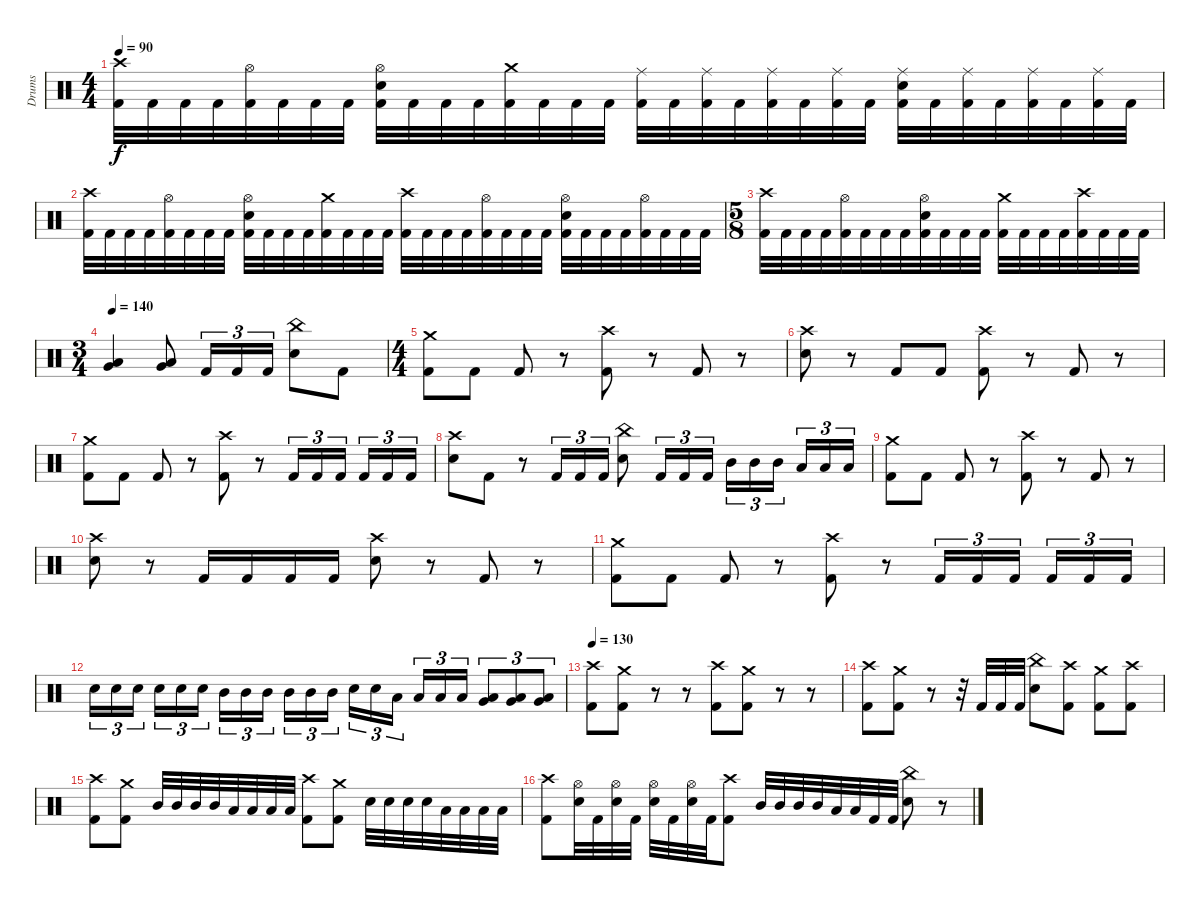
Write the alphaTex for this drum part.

\track ("Drums" "Drums") {instrument percussion}
\staff {score}
\articulation defaults
\ts (4 4)
\tempo 90
\clef neutral
\ks c
("Crash high (hit)" "Kick (hit) 2").32{dy f} "Kick (hit) 2".32 "Kick (hit) 2".32 "Kick (hit) 2".32 ("Hi-Hat (open)" "Kick (hit) 2").32 "Kick (hit) 2".32 "Kick (hit) 2".32 "Kick (hit) 2".32 ("Hi-Hat (open)" "Electric Snare (hit)" "Kick (hit) 2").32 "Kick (hit) 2".32 "Kick (hit) 2".32 "Kick (hit) 2".32 ("Crash medium (hit)" "Kick (hit) 2").32 "Kick (hit) 2".32 "Kick (hit) 2".32 "Kick (hit) 2".32 ("Ride (middle)" "Kick (hit) 2").32 "Kick (hit) 2".32 ("Ride (middle)" "Kick (hit) 2").32 "Kick (hit) 2".32 ("Ride (middle)" "Kick (hit) 2").32 "Kick (hit) 2".32 ("Ride (middle)" "Kick (hit) 2").32 "Kick (hit) 2".32 ("Ride (middle)" "Electric Snare (hit)" "Kick (hit) 2").32 "Kick (hit) 2".32 ("Ride (middle)" "Kick (hit) 2").32 "Kick (hit) 2".32 ("Ride (middle)" "Kick (hit) 2").32 "Kick (hit) 2".32 ("Ride (middle)" "Kick (hit) 2").32 "Kick (hit) 2".32 |
("Crash high (hit)" "Kick (hit) 2").32 "Kick (hit) 2".32 "Kick (hit) 2".32 "Kick (hit) 2".32 ("Hi-Hat (open)" "Kick (hit) 2").32 "Kick (hit) 2".32 "Kick (hit) 2".32 "Kick (hit) 2".32 ("Hi-Hat (open)" "Electric Snare (hit)" "Kick (hit) 2").32 "Kick (hit) 2".32 "Kick (hit) 2".32 "Kick (hit) 2".32 ("Crash medium (hit)" "Kick (hit) 2").32 "Kick (hit) 2".32 "Kick (hit) 2".32 "Kick (hit) 2".32 ("Crash high (hit)" "Kick (hit) 2").32 "Kick (hit) 2".32 "Kick (hit) 2".32 "Kick (hit) 2".32 ("Hi-Hat (open)" "Kick (hit) 2").32 "Kick (hit) 2".32 "Kick (hit) 2".32 "Kick (hit) 2".32 ("Hi-Hat (open)" "Electric Snare (hit)" "Kick (hit) 2").32 "Kick (hit) 2".32 "Kick (hit) 2".32 "Kick (hit) 2".32 ("Hi-Hat (open)" "Kick (hit) 2").32 "Kick (hit) 2".32 "Kick (hit) 2".32 "Kick (hit) 2".32 |
\ts (5 8)
("Crash high (hit)" "Kick (hit) 2").32 "Kick (hit) 2".32 "Kick (hit) 2".32 "Kick (hit) 2".32 ("Hi-Hat (open)" "Kick (hit) 2").32 "Kick (hit) 2".32 "Kick (hit) 2".32 "Kick (hit) 2".32 ("Hi-Hat (open)" "Electric Snare (hit)" "Kick (hit) 2").32 "Kick (hit) 2".32 "Kick (hit) 2".32 "Kick (hit) 2".32 ("Crash medium (hit)" "Kick (hit) 2").32 "Kick (hit) 2".32 "Kick (hit) 2".32 "Kick (hit) 2".32 ("Crash high (hit)" "Kick (hit) 2").32 "Kick (hit) 2".32 "Kick (hit) 2".32 "Kick (hit) 2".32 |
\ts (3 4)
\tempo 140
("Low Tom (hit)" "Very Low Tom (hit)").4 ("Low Tom (hit)" "Very Low Tom (hit)").8 "Kick (hit) 2".16{tu (3 2)} "Kick (hit) 2".16{tu (3 2)} "Kick (hit) 2".16{tu (3 2)} ("China (hit)" "Electric Snare (hit)").8 "Kick (hit) 2".8 |
\ts (4 4)
("Crash medium (hit)" "Kick (hit) 2").8 "Kick (hit) 2".8 "Kick (hit) 2".8 r.8 ("Crash high (hit)" "Kick (hit) 2").8 r.8 "Kick (hit) 2".8 r.8 |
("Crash high (hit)" "Electric Snare (hit)").8 r.8 "Kick (hit) 2".8 "Kick (hit) 2".8 ("Crash high (hit)" "Kick (hit) 2").8 r.8 "Kick (hit) 2".8 r.8 |
("Crash medium (hit)" "Kick (hit) 2").8 "Kick (hit) 2".8 "Kick (hit) 2".8 r.8 ("Crash high (hit)" "Kick (hit) 2").8 r.8 "Kick (hit) 2".16{tu (3 2)} "Kick (hit) 2".16{tu (3 2)} "Kick (hit) 2".16{tu (3 2) beam splitsecondary} "Kick (hit) 2".16{tu (3 2)} "Kick (hit) 2".16{tu (3 2)} "Kick (hit) 2".16{tu (3 2)} |
("Crash high (hit)" "Electric Snare (hit)").8 "Kick (hit) 2".8 r.8 "Kick (hit) 2".16{tu (3 2)} "Kick (hit) 2".16{tu (3 2)} "Kick (hit) 2".16{tu (3 2)} ("China (hit)" "Electric Snare (hit)").8 "Kick (hit) 2".16{tu (3 2)} "Kick (hit) 2".16{tu (3 2)} "Kick (hit) 2".16{tu (3 2)} "Mid Tom (hit)".16{tu (3 2)} "Mid Tom (hit)".16{tu (3 2)} "Mid Tom (hit)".16{tu (3 2) beam splitsecondary} "Low Tom (hit)".16{tu (3 2)} "Low Tom (hit)".16{tu (3 2)} "Low Tom (hit)".16{tu (3 2)} |
("Crash medium (hit)" "Kick (hit) 2").8 "Kick (hit) 2".8 "Kick (hit) 2".8 r.8 ("Crash high (hit)" "Kick (hit) 2").8 r.8 "Kick (hit) 2".8 r.8 |
("Crash high (hit)" "Electric Snare (hit)").8 r.8 "Kick (hit) 2".16 "Kick (hit) 2".16 "Kick (hit) 2".16 "Kick (hit) 2".16 ("Crash high (hit)" "Electric Snare (hit)").8 r.8 "Kick (hit) 2".8 r.8 |
("Crash medium (hit)" "Kick (hit) 2").8 "Kick (hit) 2".8 "Kick (hit) 2".8 r.8 ("Crash high (hit)" "Kick (hit) 2").8 r.8 "Kick (hit) 2".16{tu (3 2)} "Kick (hit) 2".16{tu (3 2)} "Kick (hit) 2".16{tu (3 2) beam splitsecondary} "Kick (hit) 2".16{tu (3 2)} "Kick (hit) 2".16{tu (3 2)} "Kick (hit) 2".16{tu (3 2)} |
"Electric Snare (hit)".16{tu (3 2)} "Electric Snare (hit)".16{tu (3 2)} "Electric Snare (hit)".16{tu (3 2) beam splitsecondary} "Electric Snare (hit)".16{tu (3 2)} "Electric Snare (hit)".16{tu (3 2)} "Electric Snare (hit)".16{tu (3 2)} "Mid Tom (hit)".16{tu (3 2)} "Mid Tom (hit)".16{tu (3 2)} "Mid Tom (hit)".16{tu (3 2) beam splitsecondary} "Mid Tom (hit)".16{tu (3 2)} "Mid Tom (hit)".16{tu (3 2)} "Mid Tom (hit)".16{tu (3 2)} "Electric Snare (hit)".16{tu (3 2)} "Electric Snare (hit)".16{tu (3 2)} "Low Tom (hit)".16{tu (3 2) beam splitsecondary} "Low Tom (hit)".16{tu (3 2)} "Low Tom (hit)".16{tu (3 2)} "Low Tom (hit)".16{tu (3 2)} ("Low Tom (hit)" "Very Low Tom (hit)").8{tu (3 2)} ("Low Tom (hit)" "Very Low Tom (hit)").8{tu (3 2)} ("Low Tom (hit)" "Very Low Tom (hit)").8{tu (3 2)} |
\tempo 130
("Crash high (hit)" "Kick (hit) 2").8 ("Crash medium (hit)" "Kick (hit) 2").8 r.8 r.8 ("Crash high (hit)" "Kick (hit) 2").8 ("Crash medium (hit)" "Kick (hit) 2").8 r.8 r.8 |
("Crash high (hit)" "Kick (hit) 2").8 ("Crash medium (hit)" "Kick (hit) 2").8 r.8 r.32 "Kick (hit) 2".32 "Kick (hit) 2".32 "Kick (hit) 2".32 ("China (hit)" "Electric Snare (hit)").8 ("Crash high (hit)" "Kick (hit) 2").8 ("Crash medium (hit)" "Kick (hit) 2").8 ("Crash high (hit)" "Kick (hit) 2").8 |
("Crash high (hit)" "Kick (hit) 2").8 ("Crash medium (hit)" "Kick (hit) 2").8 "Mid Tom (hit)".32 "Mid Tom (hit)".32 "Mid Tom (hit)".32 "Mid Tom (hit)".32 "Low Tom (hit)".32 "Low Tom (hit)".32 "Low Tom (hit)".32 "Low Tom (hit)".32 ("Crash high (hit)" "Kick (hit) 2").8 ("Crash medium (hit)" "Kick (hit) 2").8 "Electric Snare (hit)".32 "Electric Snare (hit)".32 "Electric Snare (hit)".32 "Electric Snare (hit)".32 "Low Tom (hit)".32 "Low Tom (hit)".32 "Low Tom (hit)".32 "Low Tom (hit)".32 |
("Crash high (hit)" "Kick (hit) 2").8 ("Hi-Hat (open)" "Electric Snare (hit)").32 "Kick (hit) 2".32 ("Hi-Hat (open)" "Electric Snare (hit)").32 "Kick (hit) 2".32 ("Hi-Hat (open)" "Electric Snare (hit)").32 "Kick (hit) 2".32 ("Hi-Hat (open)" "Electric Snare (hit)").32 "Kick (hit) 2".32 ("Crash high (hit)" "Kick (hit) 2").8 "Mid Tom (hit)".32 "Mid Tom (hit)".32 "Mid Tom (hit)".32 "Mid Tom (hit)".32 "Low Tom (hit)".32 "Low Tom (hit)".32 "Kick (hit) 2".32 "Kick (hit) 2".32 ("China (hit)" "Electric Snare (hit)").8 r.8
